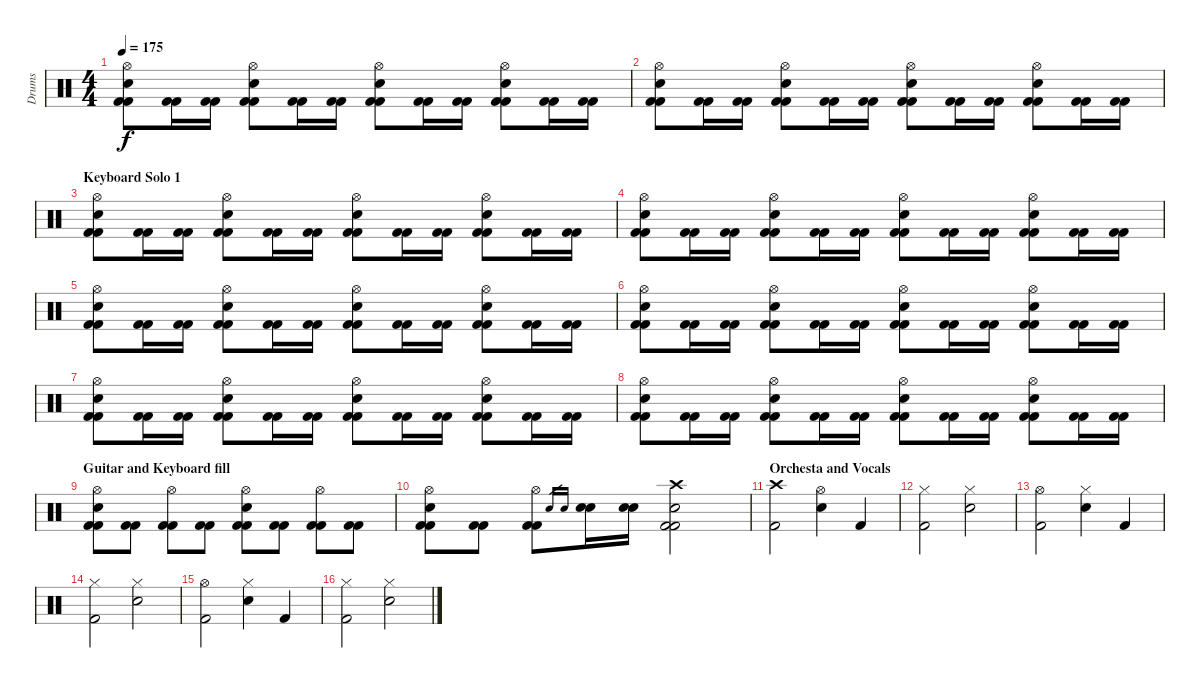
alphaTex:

\track ("Drums" "Drums") {instrument percussion}
\staff {score}
\articulation defaults
\ts (4 4)
\tempo 175
\clef neutral
\ks c
("Hi-Hat (open)" "Snare (hit) 2" "Kick (hit) 2" "Kick (hit) 2").8{dy f} ("Kick (hit) 2" "Kick (hit) 2").16 ("Kick (hit) 2" "Kick (hit) 2").16 ("Hi-Hat (open)" "Snare (hit) 2" "Kick (hit) 2" "Kick (hit) 2").8 ("Kick (hit) 2" "Kick (hit) 2").16 ("Kick (hit) 2" "Kick (hit) 2").16 ("Hi-Hat (open)" "Snare (hit) 2" "Kick (hit) 2" "Kick (hit) 2").8 ("Kick (hit) 2" "Kick (hit) 2").16 ("Kick (hit) 2" "Kick (hit) 2").16 ("Hi-Hat (open)" "Snare (hit) 2" "Kick (hit) 2" "Kick (hit) 2").8 ("Kick (hit) 2" "Kick (hit) 2").16 ("Kick (hit) 2" "Kick (hit) 2").16 |
("Hi-Hat (open)" "Snare (hit) 2" "Kick (hit) 2" "Kick (hit) 2").8 ("Kick (hit) 2" "Kick (hit) 2").16 ("Kick (hit) 2" "Kick (hit) 2").16 ("Hi-Hat (open)" "Snare (hit) 2" "Kick (hit) 2" "Kick (hit) 2").8 ("Kick (hit) 2" "Kick (hit) 2").16 ("Kick (hit) 2" "Kick (hit) 2").16 ("Hi-Hat (open)" "Snare (hit) 2" "Kick (hit) 2" "Kick (hit) 2").8 ("Kick (hit) 2" "Kick (hit) 2").16 ("Kick (hit) 2" "Kick (hit) 2").16 ("Hi-Hat (open)" "Snare (hit) 2" "Kick (hit) 2" "Kick (hit) 2").8 ("Kick (hit) 2" "Kick (hit) 2").16 ("Kick (hit) 2" "Kick (hit) 2").16 |
\section ("" "Keyboard Solo 1")
("Hi-Hat (open)" "Snare (hit) 2" "Kick (hit) 2" "Kick (hit) 2").8 ("Kick (hit) 2" "Kick (hit) 2").16 ("Kick (hit) 2" "Kick (hit) 2").16 ("Hi-Hat (open)" "Snare (hit) 2" "Kick (hit) 2" "Kick (hit) 2").8 ("Kick (hit) 2" "Kick (hit) 2").16 ("Kick (hit) 2" "Kick (hit) 2").16 ("Hi-Hat (open)" "Snare (hit) 2" "Kick (hit) 2" "Kick (hit) 2").8 ("Kick (hit) 2" "Kick (hit) 2").16 ("Kick (hit) 2" "Kick (hit) 2").16 ("Hi-Hat (open)" "Snare (hit) 2" "Kick (hit) 2" "Kick (hit) 2").8 ("Kick (hit) 2" "Kick (hit) 2").16 ("Kick (hit) 2" "Kick (hit) 2").16 |
("Hi-Hat (open)" "Snare (hit) 2" "Kick (hit) 2" "Kick (hit) 2").8 ("Kick (hit) 2" "Kick (hit) 2").16 ("Kick (hit) 2" "Kick (hit) 2").16 ("Hi-Hat (open)" "Snare (hit) 2" "Kick (hit) 2" "Kick (hit) 2").8 ("Kick (hit) 2" "Kick (hit) 2").16 ("Kick (hit) 2" "Kick (hit) 2").16 ("Hi-Hat (open)" "Snare (hit) 2" "Kick (hit) 2" "Kick (hit) 2").8 ("Kick (hit) 2" "Kick (hit) 2").16 ("Kick (hit) 2" "Kick (hit) 2").16 ("Hi-Hat (open)" "Snare (hit) 2" "Kick (hit) 2" "Kick (hit) 2").8 ("Kick (hit) 2" "Kick (hit) 2").16 ("Kick (hit) 2" "Kick (hit) 2").16 |
("Hi-Hat (open)" "Snare (hit) 2" "Kick (hit) 2" "Kick (hit) 2").8 ("Kick (hit) 2" "Kick (hit) 2").16 ("Kick (hit) 2" "Kick (hit) 2").16 ("Hi-Hat (open)" "Snare (hit) 2" "Kick (hit) 2" "Kick (hit) 2").8 ("Kick (hit) 2" "Kick (hit) 2").16 ("Kick (hit) 2" "Kick (hit) 2").16 ("Hi-Hat (open)" "Snare (hit) 2" "Kick (hit) 2" "Kick (hit) 2").8 ("Kick (hit) 2" "Kick (hit) 2").16 ("Kick (hit) 2" "Kick (hit) 2").16 ("Hi-Hat (open)" "Snare (hit) 2" "Kick (hit) 2" "Kick (hit) 2").8 ("Kick (hit) 2" "Kick (hit) 2").16 ("Kick (hit) 2" "Kick (hit) 2").16 |
("Hi-Hat (open)" "Snare (hit) 2" "Kick (hit) 2" "Kick (hit) 2").8 ("Kick (hit) 2" "Kick (hit) 2").16 ("Kick (hit) 2" "Kick (hit) 2").16 ("Hi-Hat (open)" "Snare (hit) 2" "Kick (hit) 2" "Kick (hit) 2").8 ("Kick (hit) 2" "Kick (hit) 2").16 ("Kick (hit) 2" "Kick (hit) 2").16 ("Hi-Hat (open)" "Snare (hit) 2" "Kick (hit) 2" "Kick (hit) 2").8 ("Kick (hit) 2" "Kick (hit) 2").16 ("Kick (hit) 2" "Kick (hit) 2").16 ("Hi-Hat (open)" "Snare (hit) 2" "Kick (hit) 2" "Kick (hit) 2").8 ("Kick (hit) 2" "Kick (hit) 2").16 ("Kick (hit) 2" "Kick (hit) 2").16 |
("Hi-Hat (open)" "Snare (hit) 2" "Kick (hit) 2" "Kick (hit) 2").8 ("Kick (hit) 2" "Kick (hit) 2").16 ("Kick (hit) 2" "Kick (hit) 2").16 ("Hi-Hat (open)" "Snare (hit) 2" "Kick (hit) 2" "Kick (hit) 2").8 ("Kick (hit) 2" "Kick (hit) 2").16 ("Kick (hit) 2" "Kick (hit) 2").16 ("Hi-Hat (open)" "Snare (hit) 2" "Kick (hit) 2" "Kick (hit) 2").8 ("Kick (hit) 2" "Kick (hit) 2").16 ("Kick (hit) 2" "Kick (hit) 2").16 ("Hi-Hat (open)" "Snare (hit) 2" "Kick (hit) 2" "Kick (hit) 2").8 ("Kick (hit) 2" "Kick (hit) 2").16 ("Kick (hit) 2" "Kick (hit) 2").16 |
("Hi-Hat (open)" "Snare (hit) 2" "Kick (hit) 2" "Kick (hit) 2").8 ("Kick (hit) 2" "Kick (hit) 2").16 ("Kick (hit) 2" "Kick (hit) 2").16 ("Hi-Hat (open)" "Snare (hit) 2" "Kick (hit) 2" "Kick (hit) 2").8 ("Kick (hit) 2" "Kick (hit) 2").16 ("Kick (hit) 2" "Kick (hit) 2").16 ("Hi-Hat (open)" "Snare (hit) 2" "Kick (hit) 2" "Kick (hit) 2").8 ("Kick (hit) 2" "Kick (hit) 2").16 ("Kick (hit) 2" "Kick (hit) 2").16 ("Hi-Hat (open)" "Snare (hit) 2" "Kick (hit) 2" "Kick (hit) 2").8 ("Kick (hit) 2" "Kick (hit) 2").16 ("Kick (hit) 2" "Kick (hit) 2").16 |
\section ("" "Guitar and Keyboard fill")
("Hi-Hat (open)" "Snare (hit) 2" "Kick (hit) 2" "Kick (hit) 2").8 ("Kick (hit) 2" "Kick (hit) 2").8 ("Hi-Hat (open)" "Kick (hit) 2" "Kick (hit) 2").8 ("Kick (hit) 2" "Kick (hit) 2").8 ("Hi-Hat (open)" "Snare (hit) 2" "Kick (hit) 2" "Kick (hit) 2").8 ("Kick (hit) 2" "Kick (hit) 2").8 ("Hi-Hat (open)" "Kick (hit) 2" "Kick (hit) 2").8 ("Kick (hit) 2" "Kick (hit) 2").8 |
("Hi-Hat (open)" "Snare (hit) 2" "Kick (hit) 2" "Kick (hit) 2").8 ("Kick (hit) 2" "Kick (hit) 2").8 ("Hi-Hat (open)" "Kick (hit) 2" "Kick (hit) 2").8 "Snare (hit) 2".16{gr} "Snare (hit) 2".16{gr} ("Snare (hit) 2" "Snare (hit) 2").16 ("Snare (hit) 2" "Snare (hit) 2").16 ("Crash high (hit)" "Snare (hit) 2" "Kick (hit) 2" "Kick (hit) 2").2 |
\section ("" "Orchesta and Vocals")
("Crash high (hit)" "Kick (hit) 2").2 ("Hi-Hat (open)" "Snare (hit) 2").4 "Kick (hit) 2".4 |
("Hi-Hat (closed)" "Kick (hit) 2").2 ("Hi-Hat (closed)" "Snare (hit) 2").2 |
("Hi-Hat (open)" "Kick (hit) 2").2 ("Hi-Hat (closed)" "Snare (hit) 2").4 "Kick (hit) 2".4 |
("Hi-Hat (closed)" "Kick (hit) 2").2 ("Hi-Hat (closed)" "Snare (hit) 2").2 |
("Hi-Hat (open)" "Kick (hit) 2").2 ("Hi-Hat (closed)" "Snare (hit) 2").4 "Kick (hit) 2".4 |
("Hi-Hat (closed)" "Kick (hit) 2").2 ("Hi-Hat (closed)" "Snare (hit) 2").2
